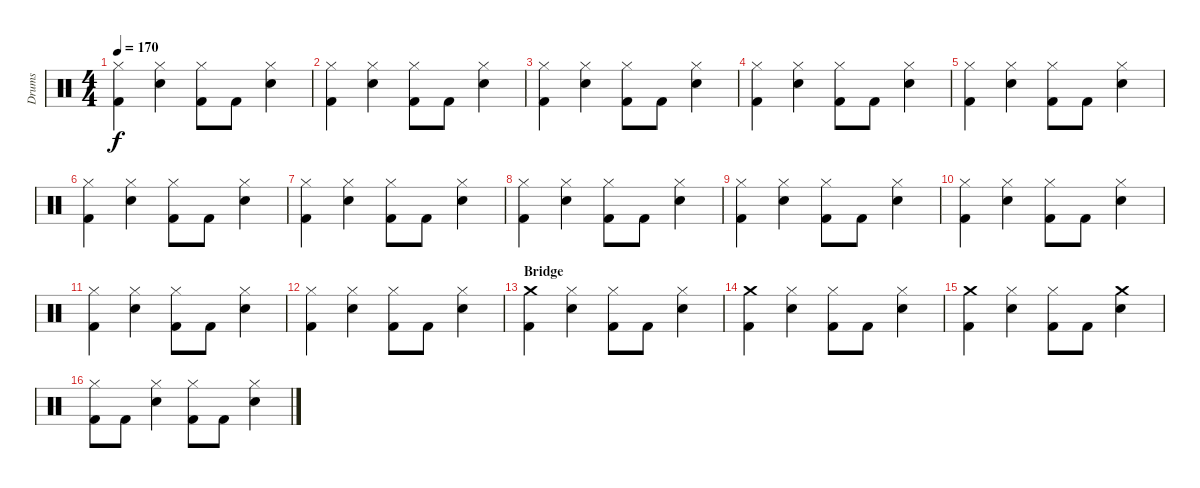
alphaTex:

\track ("Drums" "Drums") {instrument percussion}
\staff {score}
\articulation defaults
\ts (4 4)
\tempo 170
\clef neutral
\ks c
("Hi-Hat (closed)" "Kick (hit) 2").4{dy f} ("Hi-Hat (closed)" "Electric Snare (hit)").4 ("Hi-Hat (closed)" "Kick (hit) 2").8 "Kick (hit) 2".8 ("Hi-Hat (closed)" "Electric Snare (hit)").4 |
("Hi-Hat (closed)" "Kick (hit) 2").4 ("Hi-Hat (closed)" "Electric Snare (hit)").4 ("Hi-Hat (closed)" "Kick (hit) 2").8 "Kick (hit) 2".8 ("Hi-Hat (closed)" "Electric Snare (hit)").4 |
("Hi-Hat (closed)" "Kick (hit) 2").4 ("Hi-Hat (closed)" "Electric Snare (hit)").4 ("Hi-Hat (closed)" "Kick (hit) 2").8 "Kick (hit) 2".8 ("Hi-Hat (closed)" "Electric Snare (hit)").4 |
("Hi-Hat (closed)" "Kick (hit) 2").4 ("Hi-Hat (closed)" "Electric Snare (hit)").4 ("Hi-Hat (closed)" "Kick (hit) 2").8 "Kick (hit) 2".8 ("Hi-Hat (closed)" "Electric Snare (hit)").4 |
("Hi-Hat (closed)" "Kick (hit) 2").4 ("Hi-Hat (closed)" "Electric Snare (hit)").4 ("Hi-Hat (closed)" "Kick (hit) 2").8 "Kick (hit) 2".8 ("Hi-Hat (closed)" "Electric Snare (hit)").4 |
("Hi-Hat (closed)" "Kick (hit) 2").4 ("Hi-Hat (closed)" "Electric Snare (hit)").4 ("Hi-Hat (closed)" "Kick (hit) 2").8 "Kick (hit) 2".8 ("Hi-Hat (closed)" "Electric Snare (hit)").4 |
("Hi-Hat (closed)" "Kick (hit) 2").4 ("Hi-Hat (closed)" "Electric Snare (hit)").4 ("Hi-Hat (closed)" "Kick (hit) 2").8 "Kick (hit) 2".8 ("Hi-Hat (closed)" "Electric Snare (hit)").4 |
("Hi-Hat (closed)" "Kick (hit) 2").4 ("Hi-Hat (closed)" "Electric Snare (hit)").4 ("Hi-Hat (closed)" "Kick (hit) 2").8 "Kick (hit) 2".8 ("Hi-Hat (closed)" "Electric Snare (hit)").4 |
("Hi-Hat (closed)" "Kick (hit) 2").4 ("Hi-Hat (closed)" "Electric Snare (hit)").4 ("Hi-Hat (closed)" "Kick (hit) 2").8 "Kick (hit) 2".8 ("Hi-Hat (closed)" "Electric Snare (hit)").4 |
("Hi-Hat (closed)" "Kick (hit) 2").4 ("Hi-Hat (closed)" "Electric Snare (hit)").4 ("Hi-Hat (closed)" "Kick (hit) 2").8 "Kick (hit) 2".8 ("Hi-Hat (closed)" "Electric Snare (hit)").4 |
("Hi-Hat (closed)" "Kick (hit) 2").4 ("Hi-Hat (closed)" "Electric Snare (hit)").4 ("Hi-Hat (closed)" "Kick (hit) 2").8 "Kick (hit) 2".8 ("Hi-Hat (closed)" "Electric Snare (hit)").4 |
("Hi-Hat (closed)" "Kick (hit) 2").4 ("Hi-Hat (closed)" "Electric Snare (hit)").4 ("Hi-Hat (closed)" "Kick (hit) 2").8 "Kick (hit) 2".8 ("Hi-Hat (closed)" "Electric Snare (hit)").4 |
\section ("" "Bridge")
("Crash medium (hit)" "Kick (hit) 2").4 ("Hi-Hat (closed)" "Electric Snare (hit)").4 ("Hi-Hat (closed)" "Kick (hit) 2").8 "Kick (hit) 2".8 ("Hi-Hat (closed)" "Electric Snare (hit)").4 |
("Crash medium (hit)" "Kick (hit) 2").4 ("Hi-Hat (closed)" "Electric Snare (hit)").4 ("Hi-Hat (closed)" "Kick (hit) 2").8 "Kick (hit) 2".8 ("Hi-Hat (closed)" "Electric Snare (hit)").4 |
("Crash medium (hit)" "Kick (hit) 2").4 ("Hi-Hat (closed)" "Electric Snare (hit)").4 ("Hi-Hat (closed)" "Kick (hit) 2").8 "Kick (hit) 2".8 ("Crash medium (hit)" "Electric Snare (hit)").4 |
("Hi-Hat (closed)" "Kick (hit) 2").8 "Kick (hit) 2".8 ("Hi-Hat (closed)" "Electric Snare (hit)").4 ("Hi-Hat (closed)" "Kick (hit) 2").8 "Kick (hit) 2".8 ("Hi-Hat (closed)" "Electric Snare (hit)").4
